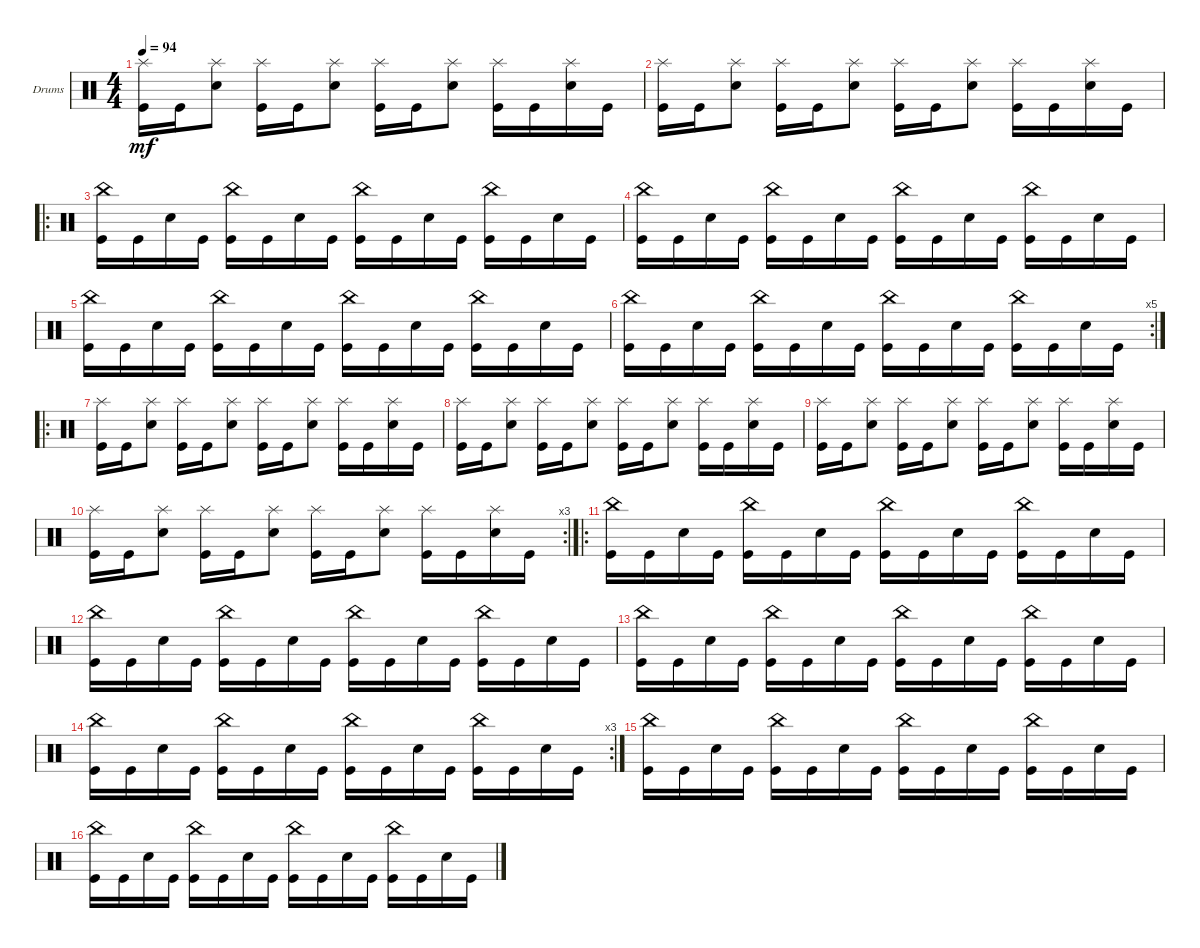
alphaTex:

\defaultSystemsLayout 4
\bracketExtendMode groupsimilarinstruments
\firstSystemTrackNameOrientation horizontal
\otherSystemsTrackNameOrientation horizontal
\track ("Тоха" "Drums") {instrument percussion}
\staff {score}
\articulation defaults
\ts (4 4)
\tempo 94
\clef neutral
\scale
0.333333
\ks c
("Kick (hit)" "Splash (hit)").16{dy mf} "Kick (hit)".16 ("Snare (hit) 2" "Splash (hit)").8 ("Kick (hit)" "Splash (hit)").16 "Kick (hit)".16 ("Snare (hit) 2" "Splash (hit)").8 ("Kick (hit)" "Splash (hit)").16 "Kick (hit)".16 ("Snare (hit) 2" "Splash (hit)").8 ("Kick (hit)" "Splash (hit)").16 "Kick (hit)".16 ("Snare (hit) 2" "Splash (hit)").16 "Kick (hit)".16 |
\scale
0.333333 ("Kick (hit)" "Splash (hit)").16 "Kick (hit)".16 ("Snare (hit) 2" "Splash (hit)").8 ("Kick (hit)" "Splash (hit)").16 "Kick (hit)".16 ("Snare (hit) 2" "Splash (hit)").8 ("Kick (hit)" "Splash (hit)").16 "Kick (hit)".16 ("Snare (hit) 2" "Splash (hit)").8 ("Kick (hit)" "Splash (hit)").16 "Kick (hit)".16 ("Snare (hit) 2" "Splash (hit)").16 "Kick (hit)".16 |
\ro
\scale
0.377778 ("Kick (hit)" "China (hit)").16 "Kick (hit)".16 "Snare (hit) 2".16 "Kick (hit)".16 ("Kick (hit)" "China (hit)").16 "Kick (hit)".16 "Snare (hit) 2".16 "Kick (hit)".16 ("Kick (hit)" "China (hit)").16 "Kick (hit)".16 "Snare (hit) 2".16 "Kick (hit)".16 ("Kick (hit)" "China (hit)").16 "Kick (hit)".16 "Snare (hit) 2".16 "Kick (hit)".16 |
\scale
0.311111 ("Kick (hit)" "China (hit)").16 "Kick (hit)".16 "Snare (hit) 2".16 "Kick (hit)".16 ("Kick (hit)" "China (hit)").16 "Kick (hit)".16 "Snare (hit) 2".16 "Kick (hit)".16 ("Kick (hit)" "China (hit)").16 "Kick (hit)".16 "Snare (hit) 2".16 "Kick (hit)".16 ("Kick (hit)" "China (hit)").16 "Kick (hit)".16 "Snare (hit) 2".16 "Kick (hit)".16 |
\scale
0.311111 ("Kick (hit)" "China (hit)").16 "Kick (hit)".16 "Snare (hit) 2".16 "Kick (hit)".16 ("Kick (hit)" "China (hit)").16 "Kick (hit)".16 "Snare (hit) 2".16 "Kick (hit)".16 ("Kick (hit)" "China (hit)").16 "Kick (hit)".16 "Snare (hit) 2".16 "Kick (hit)".16 ("Kick (hit)" "China (hit)").16 "Kick (hit)".16 "Snare (hit) 2".16 "Kick (hit)".16 |
\rc 5
\scale
0.333333 ("Kick (hit)" "China (hit)").16 "Kick (hit)".16 "Snare (hit) 2".16 "Kick (hit)".16 ("Kick (hit)" "China (hit)").16 "Kick (hit)".16 "Snare (hit) 2".16 "Kick (hit)".16 ("Kick (hit)" "China (hit)").16 "Kick (hit)".16 "Snare (hit) 2".16 "Kick (hit)".16 ("Kick (hit)" "China (hit)").16 "Kick (hit)".16 "Snare (hit) 2".16 "Kick (hit)".16 |
\ro
\scale
0.365591 ("Kick (hit)" "Splash (hit)").16 "Kick (hit)".16 ("Snare (hit) 2" "Splash (hit)").8 ("Kick (hit)" "Splash (hit)").16 "Kick (hit)".16 ("Snare (hit) 2" "Splash (hit)").8 ("Kick (hit)" "Splash (hit)").16 "Kick (hit)".16 ("Snare (hit) 2" "Splash (hit)").8 ("Kick (hit)" "Splash (hit)").16 "Kick (hit)".16 ("Snare (hit) 2" "Splash (hit)").16 "Kick (hit)".16 |
\scale
0.301075 ("Kick (hit)" "Splash (hit)").16 "Kick (hit)".16 ("Snare (hit) 2" "Splash (hit)").8 ("Kick (hit)" "Splash (hit)").16 "Kick (hit)".16 ("Snare (hit) 2" "Splash (hit)").8 ("Kick (hit)" "Splash (hit)").16 "Kick (hit)".16 ("Snare (hit) 2" "Splash (hit)").8 ("Kick (hit)" "Splash (hit)").16 "Kick (hit)".16 ("Snare (hit) 2" "Splash (hit)").16 "Kick (hit)".16 |
\scale
0.301075 ("Kick (hit)" "Splash (hit)").16 "Kick (hit)".16 ("Snare (hit) 2" "Splash (hit)").8 ("Kick (hit)" "Splash (hit)").16 "Kick (hit)".16 ("Snare (hit) 2" "Splash (hit)").8 ("Kick (hit)" "Splash (hit)").16 "Kick (hit)".16 ("Snare (hit) 2" "Splash (hit)").8 ("Kick (hit)" "Splash (hit)").16 "Kick (hit)".16 ("Snare (hit) 2" "Splash (hit)").16 "Kick (hit)".16 |
\rc 3
\scale
0.333333 ("Kick (hit)" "Splash (hit)").16 "Kick (hit)".16 ("Snare (hit) 2" "Splash (hit)").8 ("Kick (hit)" "Splash (hit)").16 "Kick (hit)".16 ("Snare (hit) 2" "Splash (hit)").8 ("Kick (hit)" "Splash (hit)").16 "Kick (hit)".16 ("Snare (hit) 2" "Splash (hit)").8 ("Kick (hit)" "Splash (hit)").16 "Kick (hit)".16 ("Snare (hit) 2" "Splash (hit)").16 "Kick (hit)".16 |
\ro
\scale
0.365591 ("Kick (hit)" "China (hit)").16 "Kick (hit)".16 "Snare (hit) 2".16 "Kick (hit)".16 ("Kick (hit)" "China (hit)").16 "Kick (hit)".16 "Snare (hit) 2".16 "Kick (hit)".16 ("Kick (hit)" "China (hit)").16 "Kick (hit)".16 "Snare (hit) 2".16 "Kick (hit)".16 ("Kick (hit)" "China (hit)").16 "Kick (hit)".16 "Snare (hit) 2".16 "Kick (hit)".16 |
\scale
0.321839 ("Kick (hit)" "China (hit)").16 "Kick (hit)".16 "Snare (hit) 2".16 "Kick (hit)".16 ("Kick (hit)" "China (hit)").16 "Kick (hit)".16 "Snare (hit) 2".16 "Kick (hit)".16 ("Kick (hit)" "China (hit)").16 "Kick (hit)".16 "Snare (hit) 2".16 "Kick (hit)".16 ("Kick (hit)" "China (hit)").16 "Kick (hit)".16 "Snare (hit) 2".16 "Kick (hit)".16 |
\scale
0.321839 ("Kick (hit)" "China (hit)").16 "Kick (hit)".16 "Snare (hit) 2".16 "Kick (hit)".16 ("Kick (hit)" "China (hit)").16 "Kick (hit)".16 "Snare (hit) 2".16 "Kick (hit)".16 ("Kick (hit)" "China (hit)").16 "Kick (hit)".16 "Snare (hit) 2".16 "Kick (hit)".16 ("Kick (hit)" "China (hit)").16 "Kick (hit)".16 "Snare (hit) 2".16 "Kick (hit)".16 |
\rc 3
\scale
0.356322 ("Kick (hit)" "China (hit)").16 "Kick (hit)".16 "Snare (hit) 2".16 "Kick (hit)".16 ("Kick (hit)" "China (hit)").16 "Kick (hit)".16 "Snare (hit) 2".16 "Kick (hit)".16 ("Kick (hit)" "China (hit)").16 "Kick (hit)".16 "Snare (hit) 2".16 "Kick (hit)".16 ("Kick (hit)" "China (hit)").16 "Kick (hit)".16 "Snare (hit) 2".16 "Kick (hit)".16 |
\scale
0.333333 ("Kick (hit)" "China (hit)").16 "Kick (hit)".16 "Snare (hit) 2".16 "Kick (hit)".16 ("Kick (hit)" "China (hit)").16 "Kick (hit)".16 "Snare (hit) 2".16 "Kick (hit)".16 ("Kick (hit)" "China (hit)").16 "Kick (hit)".16 "Snare (hit) 2".16 "Kick (hit)".16 ("Kick (hit)" "China (hit)").16 "Kick (hit)".16 "Snare (hit) 2".16 "Kick (hit)".16 |
\scale
0.333333 ("Kick (hit)" "China (hit)").16 "Kick (hit)".16 "Snare (hit) 2".16 "Kick (hit)".16 ("Kick (hit)" "China (hit)").16 "Kick (hit)".16 "Snare (hit) 2".16 "Kick (hit)".16 ("Kick (hit)" "China (hit)").16 "Kick (hit)".16 "Snare (hit) 2".16 "Kick (hit)".16 ("Kick (hit)" "China (hit)").16 "Kick (hit)".16 "Snare (hit) 2".16 "Kick (hit)".16
